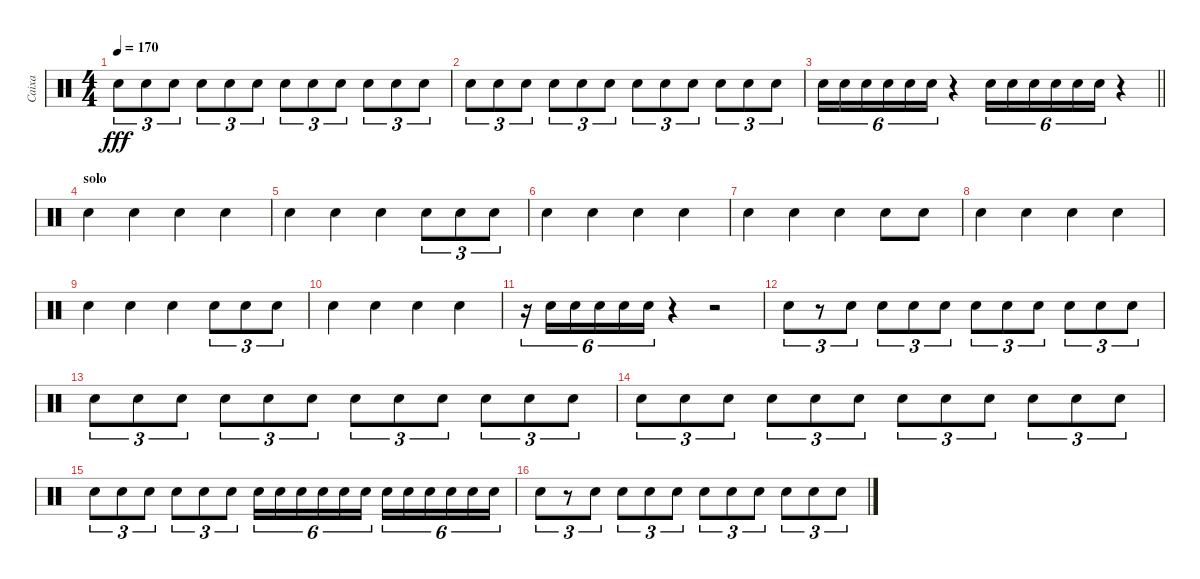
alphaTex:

\track ("Caixa" "Caixa") {instrument percussion}
\staff {score}
\articulation defaults
\ts (4 4)
\tempo 170
\clef neutral
\ks c "Electric Snare (hit)".8{tu (3 2) dy fff} "Electric Snare (hit)".8{tu (3 2)} "Electric Snare (hit)".8{tu (3 2)} "Electric Snare (hit)".8{tu (3 2)} "Electric Snare (hit)".8{tu (3 2)} "Electric Snare (hit)".8{tu (3 2)} "Electric Snare (hit)".8{tu (3 2)} "Electric Snare (hit)".8{tu (3 2)} "Electric Snare (hit)".8{tu (3 2)} "Electric Snare (hit)".8{tu (3 2)} "Electric Snare (hit)".8{tu (3 2)} "Electric Snare (hit)".8{tu (3 2)}
|
"Electric Snare (hit)".8{tu (3 2)} "Electric Snare (hit)".8{tu (3 2)} "Electric Snare (hit)".8{tu (3 2)} "Electric Snare (hit)".8{tu (3 2)} "Electric Snare (hit)".8{tu (3 2)} "Electric Snare (hit)".8{tu (3 2)} "Electric Snare (hit)".8{tu (3 2)} "Electric Snare (hit)".8{tu (3 2)} "Electric Snare (hit)".8{tu (3 2)} "Electric Snare (hit)".8{tu (3 2)} "Electric Snare (hit)".8{tu (3 2)} "Electric Snare (hit)".8{tu (3 2)} |
\barLineRight lightlight "Electric Snare (hit)".16{tu (6 4)} "Electric Snare (hit)".16{tu (6 4)} "Electric Snare (hit)".16{tu (6 4)} "Electric Snare (hit)".16{tu (6 4)} "Electric Snare (hit)".16{tu (6 4)} "Electric Snare (hit)".16{tu (6 4)}
r.4 "Electric Snare (hit)".16{tu (6 4)} "Electric Snare (hit)".16{tu (6 4)} "Electric Snare (hit)".16{tu (6 4)} "Electric Snare (hit)".16{tu (6 4)} "Electric Snare (hit)".16{tu (6 4)} "Electric Snare (hit)".16{tu (6 4)} r.4 |
\section ("" "solo")
"Electric Snare (hit)".4 "Electric Snare (hit)".4 "Electric Snare (hit)".4 "Electric Snare (hit)".4 |
"Electric Snare (hit)".4 "Electric Snare (hit)".4 "Electric Snare (hit)".4 "Electric Snare (hit)".8{tu (3 2)} "Electric Snare (hit)".8{tu (3 2)} "Electric Snare (hit)".8{tu (3 2)} |
"Electric Snare (hit)".4 "Electric Snare (hit)".4 "Electric Snare (hit)".4 "Electric Snare (hit)".4 |
"Electric Snare (hit)".4 "Electric Snare (hit)".4 "Electric Snare (hit)".4 "Electric Snare (hit)".8 "Electric Snare (hit)".8 |
"Electric Snare (hit)".4 "Electric Snare (hit)".4 "Electric Snare (hit)".4 "Electric Snare (hit)".4 |
"Electric Snare (hit)".4 "Electric Snare (hit)".4 "Electric Snare (hit)".4 "Electric Snare (hit)".8{tu (3 2)} "Electric Snare (hit)".8{tu (3 2)} "Electric Snare (hit)".8{tu (3 2)} |
"Electric Snare (hit)".4 "Electric Snare (hit)".4 "Electric Snare (hit)".4 "Electric Snare (hit)".4 |
r.16{tu (6 4)} "Electric Snare (hit)".16{tu (6 4)} "Electric Snare (hit)".16{tu (6 4)} "Electric Snare (hit)".16{tu (6 4)} "Electric Snare (hit)".16{tu (6 4)} "Electric Snare (hit)".16{tu (6 4)} r.4 r.2 |
"Electric Snare (hit)".8{tu (3 2)} r.8{tu (3 2)} "Electric Snare (hit)".8{tu (3 2)} "Electric Snare (hit)".8{tu (3 2)} "Electric Snare (hit)".8{tu (3 2)} "Electric Snare (hit)".8{tu (3 2)} "Electric Snare (hit)".8{tu (3 2)} "Electric Snare (hit)".8{tu (3 2)} "Electric Snare (hit)".8{tu (3 2)} "Electric Snare (hit)".8{tu (3 2)} "Electric Snare (hit)".8{tu (3 2)} "Electric Snare (hit)".8{tu (3 2)} |
"Electric Snare (hit)".8{tu (3 2)} "Electric Snare (hit)".8{tu (3 2)} "Electric Snare (hit)".8{tu (3 2)} "Electric Snare (hit)".8{tu (3 2)} "Electric Snare (hit)".8{tu (3 2)} "Electric Snare (hit)".8{tu (3 2)} "Electric Snare (hit)".8{tu (3 2)} "Electric Snare (hit)".8{tu (3 2)} "Electric Snare (hit)".8{tu (3 2)} "Electric Snare (hit)".8{tu (3 2)} "Electric Snare (hit)".8{tu (3 2)} "Electric Snare (hit)".8{tu (3 2)} |
"Electric Snare (hit)".8{tu (3 2)} "Electric Snare (hit)".8{tu (3 2)} "Electric Snare (hit)".8{tu (3 2)} "Electric Snare (hit)".8{tu (3 2)} "Electric Snare (hit)".8{tu (3 2)} "Electric Snare (hit)".8{tu (3 2)} "Electric Snare (hit)".8{tu (3 2)} "Electric Snare (hit)".8{tu (3 2)} "Electric Snare (hit)".8{tu (3 2)} "Electric Snare (hit)".8{tu (3 2)} "Electric Snare (hit)".8{tu (3 2)} "Electric Snare (hit)".8{tu (3 2)} |
"Electric Snare (hit)".8{tu (3 2)} "Electric Snare (hit)".8{tu (3 2)} "Electric Snare (hit)".8{tu (3 2)} "Electric Snare (hit)".8{tu (3 2)} "Electric Snare (hit)".8{tu (3 2)} "Electric Snare (hit)".8{tu (3 2)} "Electric Snare (hit)".16{tu (6 4)} "Electric Snare (hit)".16{tu (6 4)} "Electric Snare (hit)".16{tu (6 4)} "Electric Snare (hit)".16{tu (6 4)} "Electric Snare (hit)".16{tu (6 4)} "Electric Snare (hit)".16{tu (6 4)} "Electric Snare (hit)".16{tu (6 4)} "Electric Snare (hit)".16{tu (6 4)} "Electric Snare (hit)".16{tu (6 4)} "Electric Snare (hit)".16{tu (6 4)} "Electric Snare (hit)".16{tu (6 4)} "Electric Snare (hit)".16{tu (6 4)} |
"Electric Snare (hit)".8{tu (3 2)} r.8{tu (3 2)} "Electric Snare (hit)".8{tu (3 2)} "Electric Snare (hit)".8{tu (3 2)} "Electric Snare (hit)".8{tu (3 2)} "Electric Snare (hit)".8{tu (3 2)} "Electric Snare (hit)".8{tu (3 2)} "Electric Snare (hit)".8{tu (3 2)} "Electric Snare (hit)".8{tu (3 2)} "Electric Snare (hit)".8{tu (3 2)} "Electric Snare (hit)".8{tu (3 2)} "Electric Snare (hit)".8{tu (3 2)}
